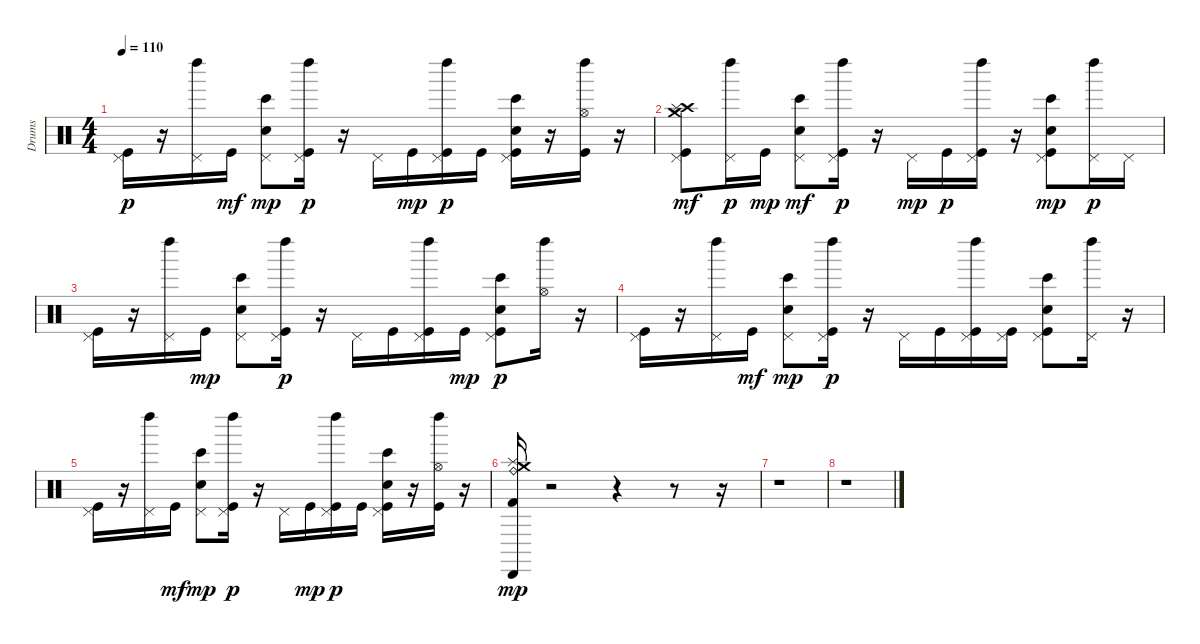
\track ("Drums" "Drums") {instrument percussion}
\staff {score}
\articulation defaults
\ts (4 4)
\tempo 110
\clef neutral
\ks c
("Kick (hit)" "Pedal Hi-Hat (hit)").16{dy p} r.16 ("Pedal Hi-Hat (hit)" "Left Maraca (hit)").16 "Kick (hit)".16{dy mf} ("Bongo High (hit)" "Electric Snare (hit)" "Pedal Hi-Hat (hit)").8{dy mp} ("Kick (hit)" "Pedal Hi-Hat (hit)" "Left Maraca (hit)").16{dy p} r.16 "Pedal Hi-Hat (hit)".16 "Kick (hit)".16{dy mp} ("Kick (hit)" "Pedal Hi-Hat (hit)" "Left Maraca (hit)").16{dy p} "Kick (hit)".16 ("Bongo High (hit)" "Kick (hit)" "Electric Snare (hit)" "Pedal Hi-Hat (hit)").16 r.16 ("Kick (hit)" "Hi-Hat (open)" "Left Maraca (hit)").16 r.16 |
("Kick (hit)" "Pedal Hi-Hat (hit)" "Crash high (hit)" "Splash (hit)" "Crash medium (hit)").8{dy mf} ("Pedal Hi-Hat (hit)" "Left Maraca (hit)").16{dy p} "Kick (hit)".16{dy mp} ("Bongo High (hit)" "Electric Snare (hit)" "Pedal Hi-Hat (hit)").8{dy mf} ("Kick (hit)" "Pedal Hi-Hat (hit)" "Left Maraca (hit)").16{dy p} r.16 "Pedal Hi-Hat (hit)".16{dy mp} "Kick (hit)".16{dy p} ("Kick (hit)" "Pedal Hi-Hat (hit)" "Left Maraca (hit)").16 r.16 ("Bongo High (hit)" "Kick (hit)" "Electric Snare (hit)" "Pedal Hi-Hat (hit)").8{dy mp} ("Pedal Hi-Hat (hit)" "Left Maraca (hit)").16{dy p} "Pedal Hi-Hat (hit)".16 |
("Kick (hit)" "Pedal Hi-Hat (hit)").16 r.16 ("Pedal Hi-Hat (hit)" "Left Maraca (hit)").16 "Kick (hit)".16{dy mp} ("Bongo High (hit)" "Electric Snare (hit)" "Pedal Hi-Hat (hit)").8 ("Kick (hit)" "Pedal Hi-Hat (hit)" "Left Maraca (hit)").16{dy p} r.16 "Pedal Hi-Hat (hit)".16 "Kick (hit)".16 ("Kick (hit)" "Pedal Hi-Hat (hit)" "Left Maraca (hit)").16 "Kick (hit)".16{dy mp} ("Bongo High (hit)" "Kick (hit)" "Electric Snare (hit)" "Pedal Hi-Hat (hit)").8{dy p} ("Hi-Hat (open)" "Left Maraca (hit)").16 r.16 |
("Kick (hit)" "Pedal Hi-Hat (hit)").16 r.16 ("Pedal Hi-Hat (hit)" "Left Maraca (hit)").16 "Kick (hit)".16{dy mf} ("Bongo High (hit)" "Electric Snare (hit)" "Pedal Hi-Hat (hit)").8{dy mp} ("Kick (hit)" "Pedal Hi-Hat (hit)" "Left Maraca (hit)").16{dy p} r.16 "Pedal Hi-Hat (hit)".16 "Kick (hit)".16 ("Kick (hit)" "Pedal Hi-Hat (hit)" "Left Maraca (hit)").16 ("Kick (hit)" "Pedal Hi-Hat (hit)").16 ("Bongo High (hit)" "Kick (hit)" "Electric Snare (hit)" "Pedal Hi-Hat (hit)").8 ("Pedal Hi-Hat (hit)" "Left Maraca (hit)").16 r.16 |
("Kick (hit)" "Pedal Hi-Hat (hit)").16 r.16 ("Pedal Hi-Hat (hit)" "Left Maraca (hit)").16 "Kick (hit)".16{dy mf} ("Bongo High (hit)" "Electric Snare (hit)" "Pedal Hi-Hat (hit)").8{dy mp} ("Kick (hit)" "Pedal Hi-Hat (hit)" "Left Maraca (hit)").16{dy p} r.16 "Pedal Hi-Hat (hit)".16 "Kick (hit)".16{dy mp} ("Kick (hit)" "Pedal Hi-Hat (hit)" "Left Maraca (hit)").16{dy p} "Kick (hit)".16 ("Bongo High (hit)" "Kick (hit)" "Electric Snare (hit)" "Pedal Hi-Hat (hit)").16 r.16 ("Kick (hit)" "Hi-Hat (open)" "Left Maraca (hit)").16 r.16 |
("Kick (hit) 2" "Ride (bell)" "Splash (hit)" "Crash medium (hit)" "Cabasa (hit)").16{dy mp} r.2 r.4 r.8 r.16 |
r.1 |
r.1
